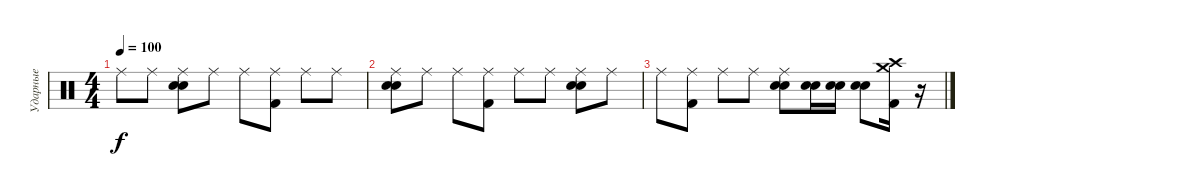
\track ("Ударные" "Ударные") {instrument percussion}
\staff {score}
\articulation defaults
\ts (4 4)
\tempo 100
\clef neutral
\ks c "Ride (middle)".8{dy f} "Ride (middle)".8
("Hand Clap (hit)" "Electric Snare (hit)" "Ride (middle)").8 "Ride (middle)".8 "Ride (middle)".8 ("Kick (hit) 2" "Ride (middle)").8 "Ride (middle)".8 "Ride (middle)".8 |
("Hand Clap (hit)" "Electric Snare (hit)" "Ride (middle)").8 "Ride (middle)".8 "Ride (middle)".8 ("Kick (hit) 2" "Ride (middle)").8 "Ride (middle)".8 "Ride (middle)".8 ("Hand Clap (hit)" "Electric Snare (hit)" "Ride (middle)").8 "Ride (middle)".8 |
"Ride (middle)".8 ("Kick (hit) 2" "Ride (middle)").8 "Ride (middle)".8 "Ride (middle)".8 ("Hand Clap (hit)" "Electric Snare (hit)" "Ride (middle)").8 ("Hand Clap (hit)" "Snare (hit) 2").16 ("Hand Clap (hit)" "Snare (hit) 2").16 ("Hand Clap (hit)" "Snare (hit) 2").8 ("Crash medium (hit)" "Crash high (hit)" "Kick (hit) 2").16 r.16
